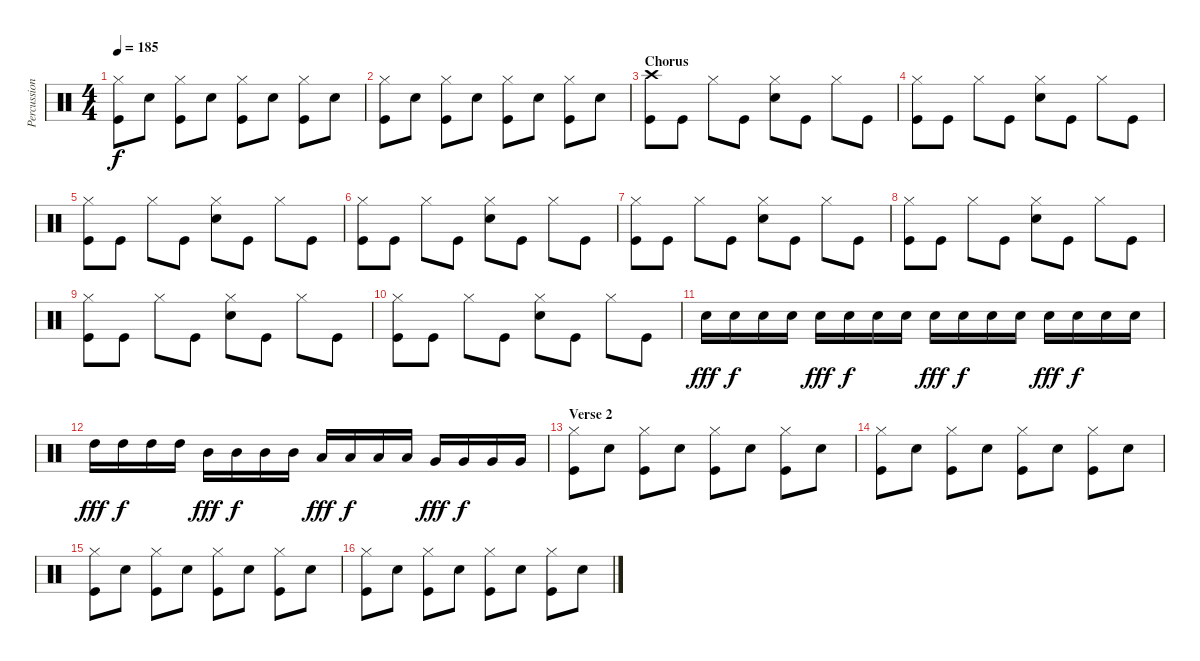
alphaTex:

\track ("Percussion" "Percussion") {instrument percussion}
\staff {score}
\articulation defaults
\ts (4 4)
\tempo 185
\clef neutral
\ks c
("Hi-Hat (closed)" "Kick (hit)").8{dy f} "Snare (hit) 2".8 ("Hi-Hat (closed)" "Kick (hit)").8 "Snare (hit) 2".8 ("Hi-Hat (closed)" "Kick (hit)").8 "Snare (hit) 2".8 ("Hi-Hat (closed)" "Kick (hit)").8 "Snare (hit) 2".8 |
("Hi-Hat (closed)" "Kick (hit)").8 "Snare (hit) 2".8 ("Hi-Hat (closed)" "Kick (hit)").8 "Snare (hit) 2".8 ("Hi-Hat (closed)" "Kick (hit)").8 "Snare (hit) 2".8 ("Hi-Hat (closed)" "Kick (hit)").8 "Snare (hit) 2".8 |
\section ("" "Chorus")
("Crash high (hit)" "Kick (hit)").8 "Kick (hit)".8 "Hi-Hat (closed)".8 "Kick (hit)".8 ("Hi-Hat (closed)" "Snare (hit) 2").8 "Kick (hit)".8 "Hi-Hat (closed)".8 "Kick (hit)".8 |
("Hi-Hat (closed)" "Kick (hit)").8 "Kick (hit)".8 "Hi-Hat (closed)".8 "Kick (hit)".8 ("Hi-Hat (closed)" "Snare (hit) 2").8 "Kick (hit)".8 "Hi-Hat (closed)".8 "Kick (hit)".8 |
("Hi-Hat (closed)" "Kick (hit)").8 "Kick (hit)".8 "Hi-Hat (closed)".8 "Kick (hit)".8 ("Hi-Hat (closed)" "Snare (hit) 2").8 "Kick (hit)".8 "Hi-Hat (closed)".8 "Kick (hit)".8 |
("Hi-Hat (closed)" "Kick (hit)").8 "Kick (hit)".8 "Hi-Hat (closed)".8 "Kick (hit)".8 ("Hi-Hat (closed)" "Snare (hit) 2").8 "Kick (hit)".8 "Hi-Hat (closed)".8 "Kick (hit)".8 |
("Hi-Hat (closed)" "Kick (hit)").8 "Kick (hit)".8 "Hi-Hat (closed)".8 "Kick (hit)".8 ("Hi-Hat (closed)" "Snare (hit) 2").8 "Kick (hit)".8 "Hi-Hat (closed)".8 "Kick (hit)".8 |
("Hi-Hat (closed)" "Kick (hit)").8 "Kick (hit)".8 "Hi-Hat (closed)".8 "Kick (hit)".8 ("Hi-Hat (closed)" "Snare (hit) 2").8 "Kick (hit)".8 "Hi-Hat (closed)".8 "Kick (hit)".8 |
("Hi-Hat (closed)" "Kick (hit)").8 "Kick (hit)".8 "Hi-Hat (closed)".8 "Kick (hit)".8 ("Hi-Hat (closed)" "Snare (hit) 2").8 "Kick (hit)".8 "Hi-Hat (closed)".8 "Kick (hit)".8 |
("Hi-Hat (closed)" "Kick (hit)").8 "Kick (hit)".8 "Hi-Hat (closed)".8 "Kick (hit)".8 ("Hi-Hat (closed)" "Snare (hit) 2").8 "Kick (hit)".8 "Hi-Hat (closed)".8 "Kick (hit)".8 |
"Snare (hit) 2".16{dy fff} "Snare (hit) 2".16{dy f} "Snare (hit) 2".16 "Snare (hit) 2".16 "Snare (hit) 2".16{dy fff} "Snare (hit) 2".16{dy f} "Snare (hit) 2".16 "Snare (hit) 2".16 "Snare (hit) 2".16{dy fff} "Snare (hit) 2".16{dy f} "Snare (hit) 2".16 "Snare (hit) 2".16 "Snare (hit) 2".16{dy fff} "Snare (hit) 2".16{dy f} "Snare (hit) 2".16 "Snare (hit) 2".16 |
"High Tom (hit)".16{dy fff} "High Tom (hit)".16{dy f} "High Tom (hit)".16 "High Tom (hit)".16 "Mid Tom (hit)".16{dy fff} "Mid Tom (hit)".16{dy f} "Mid Tom (hit)".16 "Mid Tom (hit)".16 "Low Tom (hit)".16{dy fff} "Low Tom (hit)".16{dy f} "Low Tom (hit)".16 "Low Tom (hit)".16 "Very Low Tom (hit)".16{dy fff} "Very Low Tom (hit)".16{dy f} "Very Low Tom (hit)".16 "Very Low Tom (hit)".16 |
\section ("" "Verse 2")
("Hi-Hat (closed)" "Kick (hit)").8 "Snare (hit) 2".8 ("Hi-Hat (closed)" "Kick (hit)").8 "Snare (hit) 2".8 ("Hi-Hat (closed)" "Kick (hit)").8 "Snare (hit) 2".8 ("Hi-Hat (closed)" "Kick (hit)").8 "Snare (hit) 2".8 |
("Hi-Hat (closed)" "Kick (hit)").8 "Snare (hit) 2".8 ("Hi-Hat (closed)" "Kick (hit)").8 "Snare (hit) 2".8 ("Hi-Hat (closed)" "Kick (hit)").8 "Snare (hit) 2".8 ("Hi-Hat (closed)" "Kick (hit)").8 "Snare (hit) 2".8 |
("Hi-Hat (closed)" "Kick (hit)").8 "Snare (hit) 2".8 ("Hi-Hat (closed)" "Kick (hit)").8 "Snare (hit) 2".8 ("Hi-Hat (closed)" "Kick (hit)").8 "Snare (hit) 2".8 ("Hi-Hat (closed)" "Kick (hit)").8 "Snare (hit) 2".8 |
("Hi-Hat (closed)" "Kick (hit)").8 "Snare (hit) 2".8 ("Hi-Hat (closed)" "Kick (hit)").8 "Snare (hit) 2".8 ("Hi-Hat (closed)" "Kick (hit)").8 "Snare (hit) 2".8 ("Hi-Hat (closed)" "Kick (hit)").8 "Snare (hit) 2".8
